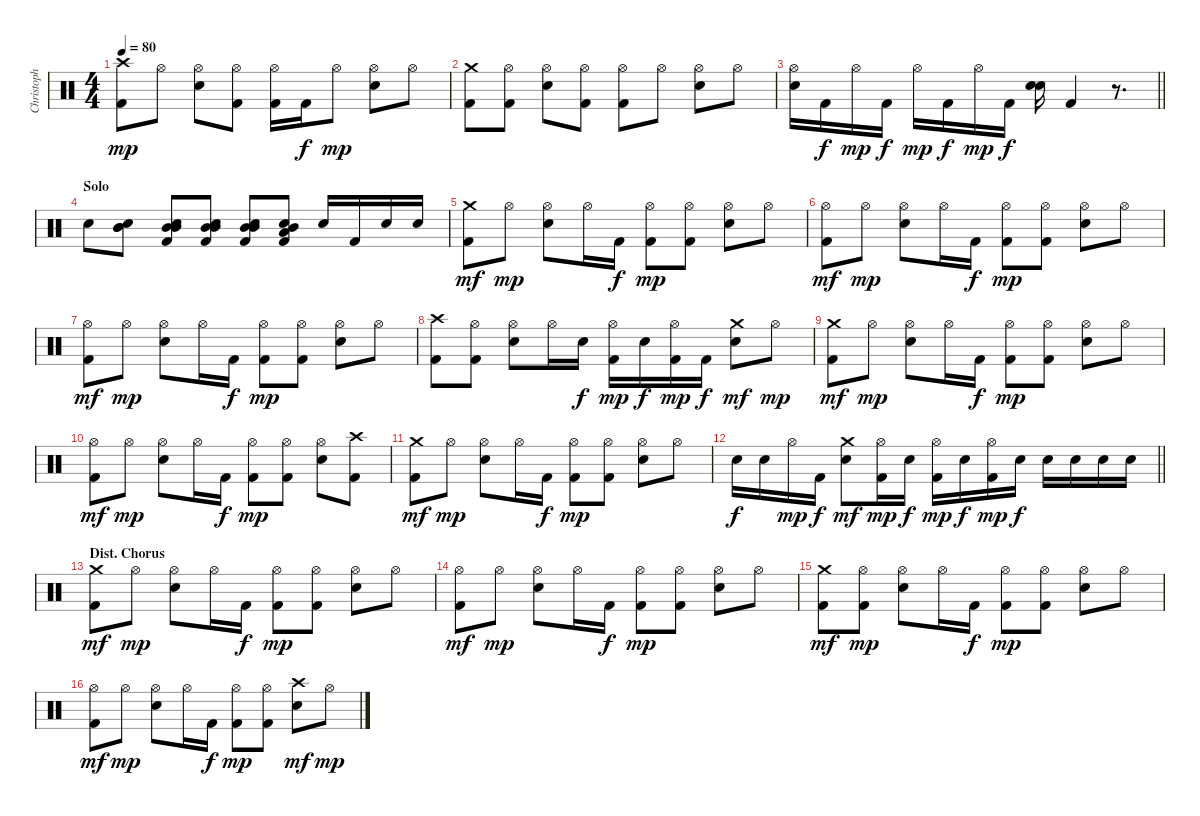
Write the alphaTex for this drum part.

\track ("Christoph Schneider // Drums" "Christoph ") {instrument percussion}
\staff {score}
\articulation defaults
\ts (4 4)
\tempo 80
\clef neutral
\ks c
("Crash high (hit)" "Kick (hit) 2").8{dy mp} "Hi-Hat (open)".8 ("Hi-Hat (open)" "Snare (hit) 2").8 ("Hi-Hat (open)" "Kick (hit) 2").8 ("Hi-Hat (open)" "Kick (hit) 2").16 "Kick (hit) 2".16{dy f} "Hi-Hat (open)".8{dy mp} ("Hi-Hat (open)" "Snare (hit) 2").8 "Hi-Hat (open)".8 |
("Crash medium (hit)" "Kick (hit) 2").8 ("Hi-Hat (open)" "Kick (hit) 2").8 ("Hi-Hat (open)" "Snare (hit) 2").8 ("Hi-Hat (open)" "Kick (hit) 2").8 ("Hi-Hat (open)" "Kick (hit) 2").8 "Hi-Hat (open)".8 ("Hi-Hat (open)" "Snare (hit) 2").8 "Hi-Hat (open)".8 |
\barLineRight lightlight
("Hi-Hat (open)" "Snare (hit) 2").16 "Kick (hit) 2".16{dy f} "Hi-Hat (open)".16{dy mp} "Kick (hit) 2".16{dy f} "Hi-Hat (open)".16{dy mp} "Kick (hit) 2".16{dy f} "Hi-Hat (open)".16{dy mp} "Kick (hit) 2".16{dy f} ("Snare (hit) 2" "Snare (hit) 2").16 "Kick (hit) 2".4 r.8{d} |
\section ("" "Solo")
"Snare (hit) 2".8 ("Mid Tom (hit)" "Mid Tom (hit)" "Snare (hit) 2").8 ("Mid Tom (hit)" "Mid Tom (hit)" "Snare (hit) 2" "Kick (hit) 2").8 ("Mid Tom (hit)" "Mid Tom (hit)" "Snare (hit) 2" "Kick (hit) 2").8 ("Mid Tom (hit)" "Mid Tom (hit)" "Snare (hit) 2" "Kick (hit) 2").8 ("Mid Tom (hit)" "Low Tom (hit)" "Snare (hit) 2" "Kick (hit) 2").8 "Snare (hit) 2".16 "Kick (hit) 2".16 "Snare (hit) 2".16 "Snare (hit) 2".16 |
("Crash medium (hit)" "Kick (hit) 2").8{dy mf} "Hi-Hat (open)".8{dy mp} ("Hi-Hat (open)" "Snare (hit) 2").8 "Hi-Hat (open)".16 "Kick (hit) 2".16{dy f} ("Hi-Hat (open)" "Kick (hit) 2").8{dy mp} ("Hi-Hat (open)" "Kick (hit) 2").8 ("Hi-Hat (open)" "Snare (hit) 2").8 "Hi-Hat (open)".8 |
("Hi-Hat (open)" "Kick (hit) 2").8{dy mf} "Hi-Hat (open)".8{dy mp} ("Hi-Hat (open)" "Snare (hit) 2").8 "Hi-Hat (open)".16 "Kick (hit) 2".16{dy f} ("Hi-Hat (open)" "Kick (hit) 2").8{dy mp} ("Hi-Hat (open)" "Kick (hit) 2").8 ("Hi-Hat (open)" "Snare (hit) 2").8 "Hi-Hat (open)".8 |
("Hi-Hat (open)" "Kick (hit) 2").8{dy mf} "Hi-Hat (open)".8{dy mp} ("Hi-Hat (open)" "Snare (hit) 2").8 "Hi-Hat (open)".16 "Kick (hit) 2".16{dy f} ("Hi-Hat (open)" "Kick (hit) 2").8{dy mp} ("Hi-Hat (open)" "Kick (hit) 2").8 ("Hi-Hat (open)" "Snare (hit) 2").8 "Hi-Hat (open)".8 |
("Crash high (hit)" "Kick (hit) 2").8 ("Hi-Hat (open)" "Kick (hit) 2").8 ("Hi-Hat (open)" "Snare (hit) 2").8 "Hi-Hat (open)".16 "Snare (hit) 2".16{dy f} ("Hi-Hat (open)" "Kick (hit) 2").16{dy mp} "Snare (hit) 2".16{dy f} ("Hi-Hat (open)" "Kick (hit) 2").16{dy mp} "Kick (hit) 2".16{dy f} ("Crash medium (hit)" "Snare (hit) 2").8{dy mf} "Hi-Hat (open)".8{dy mp} |
("Crash medium (hit)" "Kick (hit) 2").8{dy mf} "Hi-Hat (open)".8{dy mp} ("Hi-Hat (open)" "Snare (hit) 2").8 "Hi-Hat (open)".16 "Kick (hit) 2".16{dy f} ("Hi-Hat (open)" "Kick (hit) 2").8{dy mp} ("Hi-Hat (open)" "Kick (hit) 2").8 ("Hi-Hat (open)" "Snare (hit) 2").8 "Hi-Hat (open)".8 |
("Hi-Hat (open)" "Kick (hit) 2").8{dy mf} "Hi-Hat (open)".8{dy mp} ("Hi-Hat (open)" "Snare (hit) 2").8 "Hi-Hat (open)".16 "Kick (hit) 2".16{dy f} ("Hi-Hat (open)" "Kick (hit) 2").8{dy mp} ("Hi-Hat (open)" "Kick (hit) 2").8 ("Hi-Hat (open)" "Snare (hit) 2").8 ("Crash high (hit)" "Kick (hit) 2").8 |
("Crash medium (hit)" "Kick (hit) 2").8{dy mf} "Hi-Hat (open)".8{dy mp} ("Hi-Hat (open)" "Snare (hit) 2").8 "Hi-Hat (open)".16 "Kick (hit) 2".16{dy f} ("Hi-Hat (open)" "Kick (hit) 2").8{dy mp} ("Hi-Hat (open)" "Kick (hit) 2").8 ("Hi-Hat (open)" "Snare (hit) 2").8 "Hi-Hat (open)".8 |
\barLineRight lightlight "Snare (hit) 2".16{dy f} "Snare (hit) 2".16 "Hi-Hat (open)".16{dy mp} "Kick (hit) 2".16{dy f}
("Crash medium (hit)" "Snare (hit) 2").8{dy mf} ("Hi-Hat (open)" "Kick (hit) 2").16{dy mp} "Snare (hit) 2".16{dy f} ("Hi-Hat (open)" "Kick (hit) 2").16{dy mp} "Snare (hit) 2".16{dy f} ("Hi-Hat (open)" "Kick (hit) 2").16{dy mp} "Snare (hit) 2".16{dy f} "Snare (hit) 2".16 "Snare (hit) 2".16 "Snare (hit) 2".16 "Snare (hit) 2".16 |
\section ("" "Dist. Chorus")
("Crash medium (hit)" "Kick (hit) 2").8{dy mf} "Hi-Hat (open)".8{dy mp} ("Hi-Hat (open)" "Snare (hit) 2").8 "Hi-Hat (open)".16 "Kick (hit) 2".16{dy f} ("Hi-Hat (open)" "Kick (hit) 2").8{dy mp} ("Hi-Hat (open)" "Kick (hit) 2").8 ("Hi-Hat (open)" "Snare (hit) 2").8 "Hi-Hat (open)".8 |
("Hi-Hat (open)" "Kick (hit) 2").8{dy mf} "Hi-Hat (open)".8{dy mp} ("Hi-Hat (open)" "Snare (hit) 2").8 "Hi-Hat (open)".16 "Kick (hit) 2".16{dy f} ("Hi-Hat (open)" "Kick (hit) 2").8{dy mp} ("Hi-Hat (open)" "Kick (hit) 2").8 ("Hi-Hat (open)" "Snare (hit) 2").8 "Hi-Hat (open)".8 |
("Crash medium (hit)" "Kick (hit) 2").8{dy mf} ("Hi-Hat (open)" "Kick (hit) 2").8{dy mp} ("Hi-Hat (open)" "Snare (hit) 2").8 "Hi-Hat (open)".16 "Kick (hit) 2".16{dy f} ("Hi-Hat (open)" "Kick (hit) 2").8{dy mp} ("Hi-Hat (open)" "Kick (hit) 2").8 ("Hi-Hat (open)" "Snare (hit) 2").8 "Hi-Hat (open)".8 |
("Hi-Hat (open)" "Kick (hit) 2").8{dy mf} "Hi-Hat (open)".8{dy mp} ("Hi-Hat (open)" "Snare (hit) 2").8 "Hi-Hat (open)".16 "Kick (hit) 2".16{dy f} ("Hi-Hat (open)" "Kick (hit) 2").8{dy mp} ("Hi-Hat (open)" "Kick (hit) 2").8 ("Crash high (hit)" "Snare (hit) 2").8{dy mf} "Hi-Hat (open)".8{dy mp}
